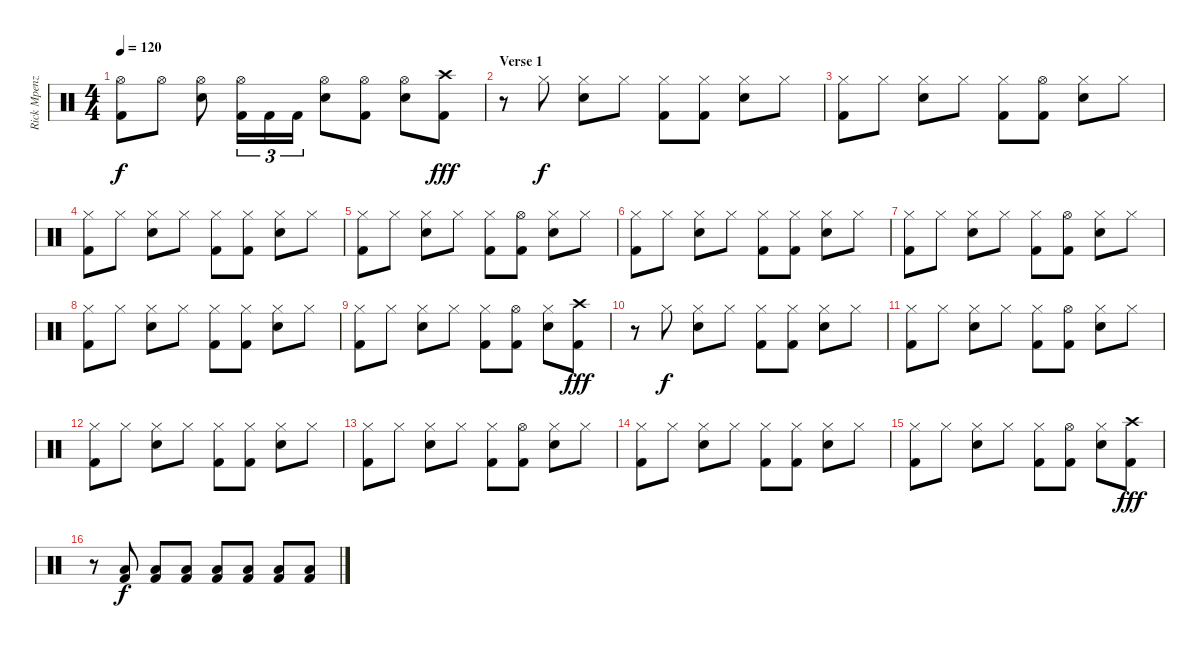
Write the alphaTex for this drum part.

\track ("Rick Mpenza" "Rick Mpenz") {instrument percussion}
\staff {score}
\articulation defaults
\ts (4 4)
\tempo 120
\clef neutral
\ks c
("Hi-Hat (open)" "Kick (hit) 2").8{dy f} "Hi-Hat (open)".8 ("Hi-Hat (open)" "Snare (hit) 2").8 ("Hi-Hat (open)" "Kick (hit) 2").16{tu (3 2)} "Kick (hit) 2".16{tu (3 2)} "Kick (hit) 2".16{tu (3 2)} ("Hi-Hat (open)" "Snare (hit) 2").8 ("Hi-Hat (open)" "Kick (hit) 2").8 ("Hi-Hat (open)" "Snare (hit) 2").8 ("Crash high (hit)" "Kick (hit) 2").8{dy fff} |
\section ("" "Verse 1")
r.8 "Hi-Hat (closed)".8{dy f} ("Hi-Hat (closed)" "Snare (hit) 2").8 "Hi-Hat (closed)".8 ("Hi-Hat (closed)" "Kick (hit) 2").8 ("Hi-Hat (closed)" "Kick (hit) 2").8 ("Hi-Hat (closed)" "Snare (hit) 2").8 "Hi-Hat (closed)".8 |
("Hi-Hat (closed)" "Kick (hit) 2").8 "Hi-Hat (closed)".8 ("Hi-Hat (closed)" "Snare (hit) 2").8 "Hi-Hat (closed)".8 ("Hi-Hat (closed)" "Kick (hit) 2").8 ("Hi-Hat (open)" "Kick (hit) 2").8 ("Hi-Hat (closed)" "Snare (hit) 2").8 "Hi-Hat (closed)".8 |
("Hi-Hat (closed)" "Kick (hit) 2").8 "Hi-Hat (closed)".8 ("Hi-Hat (closed)" "Snare (hit) 2").8 "Hi-Hat (closed)".8 ("Hi-Hat (closed)" "Kick (hit) 2").8 ("Hi-Hat (closed)" "Kick (hit) 2").8 ("Hi-Hat (closed)" "Snare (hit) 2").8 "Hi-Hat (closed)".8 |
("Hi-Hat (closed)" "Kick (hit) 2").8 "Hi-Hat (closed)".8 ("Hi-Hat (closed)" "Snare (hit) 2").8 "Hi-Hat (closed)".8 ("Hi-Hat (closed)" "Kick (hit) 2").8 ("Hi-Hat (open)" "Kick (hit) 2").8 ("Hi-Hat (closed)" "Snare (hit) 2").8 "Hi-Hat (closed)".8 |
("Hi-Hat (closed)" "Kick (hit) 2").8 "Hi-Hat (closed)".8 ("Hi-Hat (closed)" "Snare (hit) 2").8 "Hi-Hat (closed)".8 ("Hi-Hat (closed)" "Kick (hit) 2").8 ("Hi-Hat (closed)" "Kick (hit) 2").8 ("Hi-Hat (closed)" "Snare (hit) 2").8 "Hi-Hat (closed)".8 |
("Hi-Hat (closed)" "Kick (hit) 2").8 "Hi-Hat (closed)".8 ("Hi-Hat (closed)" "Snare (hit) 2").8 "Hi-Hat (closed)".8 ("Hi-Hat (closed)" "Kick (hit) 2").8 ("Hi-Hat (open)" "Kick (hit) 2").8 ("Hi-Hat (closed)" "Snare (hit) 2").8 "Hi-Hat (closed)".8 |
("Hi-Hat (closed)" "Kick (hit) 2").8 "Hi-Hat (closed)".8 ("Hi-Hat (closed)" "Snare (hit) 2").8 "Hi-Hat (closed)".8 ("Hi-Hat (closed)" "Kick (hit) 2").8 ("Hi-Hat (closed)" "Kick (hit) 2").8 ("Hi-Hat (closed)" "Snare (hit) 2").8 "Hi-Hat (closed)".8 |
("Hi-Hat (closed)" "Kick (hit) 2").8 "Hi-Hat (closed)".8 ("Hi-Hat (closed)" "Snare (hit) 2").8 "Hi-Hat (closed)".8 ("Hi-Hat (closed)" "Kick (hit) 2").8 ("Hi-Hat (open)" "Kick (hit) 2").8 ("Hi-Hat (closed)" "Snare (hit) 2").8 ("Crash high (hit)" "Kick (hit) 2").8{dy fff} |
r.8 "Hi-Hat (closed)".8{dy f} ("Hi-Hat (closed)" "Snare (hit) 2").8 "Hi-Hat (closed)".8 ("Hi-Hat (closed)" "Kick (hit) 2").8 ("Hi-Hat (closed)" "Kick (hit) 2").8 ("Hi-Hat (closed)" "Snare (hit) 2").8 "Hi-Hat (closed)".8 |
("Hi-Hat (closed)" "Kick (hit) 2").8 "Hi-Hat (closed)".8 ("Hi-Hat (closed)" "Snare (hit) 2").8 "Hi-Hat (closed)".8 ("Hi-Hat (closed)" "Kick (hit) 2").8 ("Hi-Hat (open)" "Kick (hit) 2").8 ("Hi-Hat (closed)" "Snare (hit) 2").8 "Hi-Hat (closed)".8 |
("Hi-Hat (closed)" "Kick (hit) 2").8 "Hi-Hat (closed)".8 ("Hi-Hat (closed)" "Snare (hit) 2").8 "Hi-Hat (closed)".8 ("Hi-Hat (closed)" "Kick (hit) 2").8 ("Hi-Hat (closed)" "Kick (hit) 2").8 ("Hi-Hat (closed)" "Snare (hit) 2").8 "Hi-Hat (closed)".8 |
("Hi-Hat (closed)" "Kick (hit) 2").8 "Hi-Hat (closed)".8 ("Hi-Hat (closed)" "Snare (hit) 2").8 "Hi-Hat (closed)".8 ("Hi-Hat (closed)" "Kick (hit) 2").8 ("Hi-Hat (open)" "Kick (hit) 2").8 ("Hi-Hat (closed)" "Snare (hit) 2").8 "Hi-Hat (closed)".8 |
("Hi-Hat (closed)" "Kick (hit) 2").8 "Hi-Hat (closed)".8 ("Hi-Hat (closed)" "Snare (hit) 2").8 "Hi-Hat (closed)".8 ("Hi-Hat (closed)" "Kick (hit) 2").8 ("Hi-Hat (closed)" "Kick (hit) 2").8 ("Hi-Hat (closed)" "Snare (hit) 2").8 "Hi-Hat (closed)".8 |
("Hi-Hat (closed)" "Kick (hit) 2").8 "Hi-Hat (closed)".8 ("Hi-Hat (closed)" "Snare (hit) 2").8 "Hi-Hat (closed)".8 ("Hi-Hat (closed)" "Kick (hit) 2").8 ("Hi-Hat (open)" "Kick (hit) 2").8 ("Hi-Hat (closed)" "Snare (hit) 2").8 ("Crash high (hit)" "Kick (hit) 2").8{dy fff} |
r.8 ("Low Floor Tom (hit)" "Kick (hit) 2").8{dy f} ("Low Floor Tom (hit)" "Kick (hit) 2").8 ("Low Floor Tom (hit)" "Kick (hit) 2").8 ("Low Floor Tom (hit)" "Kick (hit) 2").8 ("Low Floor Tom (hit)" "Kick (hit) 2").8 ("Low Floor Tom (hit)" "Kick (hit) 2").8 ("Low Floor Tom (hit)" "Kick (hit) 2").8
